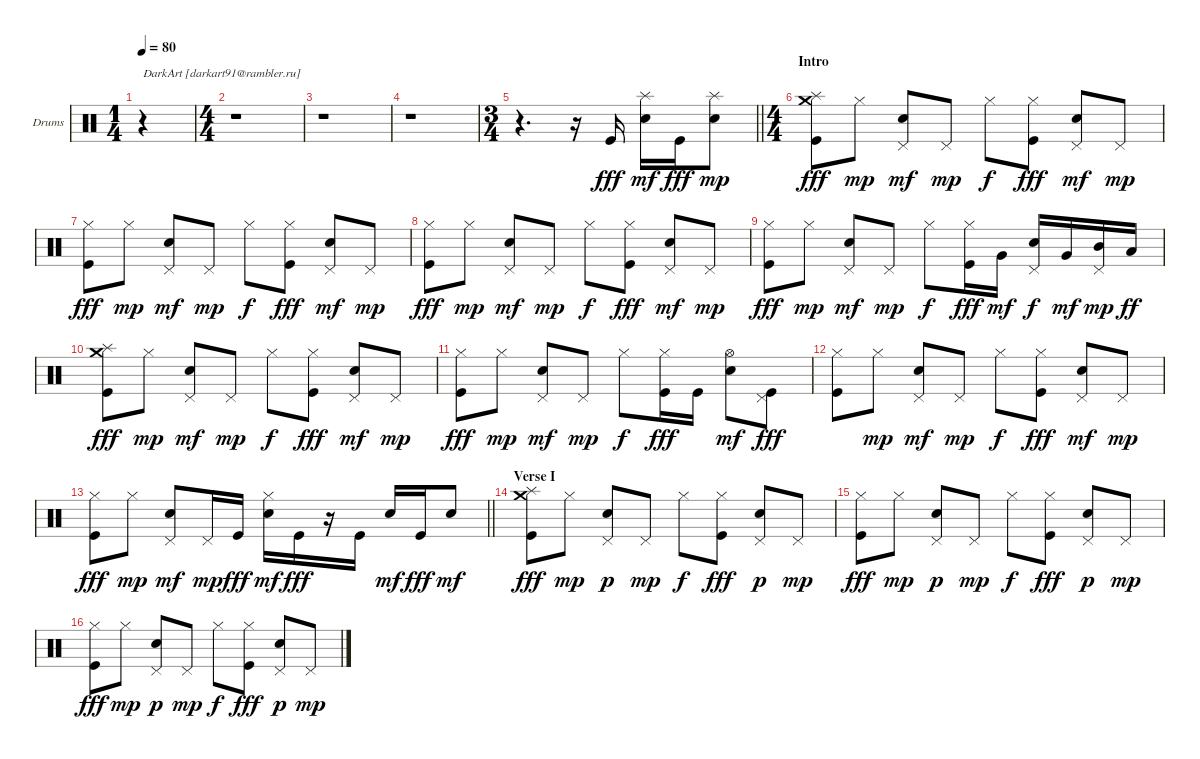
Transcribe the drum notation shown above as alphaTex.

\bracketExtendMode groupsimilarinstruments
\firstSystemTrackNameOrientation horizontal
\otherSystemsTrackNameOrientation horizontal
\track ("Drumkit" "Drums") {instrument percussion}
\staff {score}
\articulation defaults
\voice
\ts (1 4)
\beaming (8 2)
\tempo 80
\clef neutral
\ks c
r.4{txt "DarkArt [darkart91@rambler.ru]" dy fff} |
\ts (4 4)
\beaming (8 2 2 2 2)
r.1 |
r.1 |
r.1 |
\ts (3 4)
\beaming (8 2 2 2)
\barLineRight lightlight
r.4{d} r.16 "Kick (hit)".16 ("Splash (hit)" "Snare (hit) 2").16{dy mf} "Kick (hit)".16{dy fff} ("Splash (hit)" "Snare (hit) 2").8{dy mp} |
\ts (4 4)
\beaming (8 2 2 2 2)
\section ("" "Intro")
("Kick (hit)" "Crash medium (hit)" "Splash (hit)").8{dy fff} "Hi-Hat (closed)".8{dy mp} ("Pedal Hi-Hat (hit)" "Snare (hit) 2").8{dy mf} "Pedal Hi-Hat (hit)".8{dy mp} "Hi-Hat (closed)".8{dy f} ("Kick (hit)" "Hi-Hat (closed)").8{dy fff} ("Pedal Hi-Hat (hit)" "Snare (hit) 2").8{dy mf} "Pedal Hi-Hat (hit)".8{dy mp} |
("Kick (hit)" "Hi-Hat (closed)").8{dy fff} "Hi-Hat (closed)".8{dy mp} ("Pedal Hi-Hat (hit)" "Snare (hit) 2").8{dy mf} "Pedal Hi-Hat (hit)".8{dy mp} "Hi-Hat (closed)".8{dy f} ("Kick (hit)" "Hi-Hat (closed)").8{dy fff} ("Pedal Hi-Hat (hit)" "Snare (hit) 2").8{dy mf} "Pedal Hi-Hat (hit)".8{dy mp} |
("Kick (hit)" "Hi-Hat (closed)").8{dy fff} "Hi-Hat (closed)".8{dy mp} ("Pedal Hi-Hat (hit)" "Snare (hit) 2").8{dy mf} "Pedal Hi-Hat (hit)".8{dy mp} "Hi-Hat (closed)".8{dy f} ("Kick (hit)" "Hi-Hat (closed)").8{dy fff} ("Pedal Hi-Hat (hit)" "Snare (hit) 2").8{dy mf} "Pedal Hi-Hat (hit)".8{dy mp} |
("Kick (hit)" "Hi-Hat (closed)").8{dy fff} "Hi-Hat (closed)".8{dy mp} ("Pedal Hi-Hat (hit)" "Snare (hit) 2").8{dy mf} "Pedal Hi-Hat (hit)".8{dy mp} "Hi-Hat (closed)".8{dy f} ("Kick (hit)" "Hi-Hat (closed)").16{dy fff} "Very Low Tom (hit)".16{dy mf} ("Pedal Hi-Hat (hit)" "Snare (hit) 2").16{dy f} "Very Low Tom (hit)".16{dy mf} ("Pedal Hi-Hat (hit)" "Mid Tom (hit)").16{dy mp} "Low Tom (hit)".16{dy ff} |
("Kick (hit)" "Crash medium (hit)" "Splash (hit)").8{dy fff} "Hi-Hat (closed)".8{dy mp} ("Pedal Hi-Hat (hit)" "Snare (hit) 2").8{dy mf} "Pedal Hi-Hat (hit)".8{dy mp} "Hi-Hat (closed)".8{dy f} ("Kick (hit)" "Hi-Hat (closed)").8{dy fff} ("Pedal Hi-Hat (hit)" "Snare (hit) 2").8{dy mf} "Pedal Hi-Hat (hit)".8{dy mp} |
("Kick (hit)" "Hi-Hat (closed)").8{dy fff} "Hi-Hat (closed)".8{dy mp} ("Pedal Hi-Hat (hit)" "Snare (hit) 2").8{dy mf} "Pedal Hi-Hat (hit)".8{dy mp} "Hi-Hat (closed)".8{dy f} ("Kick (hit)" "Hi-Hat (closed)").16{dy fff} "Kick (hit)".16 ("Hi-Hat (open)" "Snare (hit) 2").8{dy mf} ("Kick (hit)" "Pedal Hi-Hat (hit)").8{dy fff} |
("Kick (hit)" "Hi-Hat (closed)").8 "Hi-Hat (closed)".8{dy mp} ("Pedal Hi-Hat (hit)" "Snare (hit) 2").8{dy mf} "Pedal Hi-Hat (hit)".8{dy mp} "Hi-Hat (closed)".8{dy f} ("Kick (hit)" "Hi-Hat (closed)").8{dy fff} ("Pedal Hi-Hat (hit)" "Snare (hit) 2").8{dy mf} "Pedal Hi-Hat (hit)".8{dy mp} |
\barLineRight lightlight
("Kick (hit)" "Hi-Hat (closed)").8{dy fff} "Hi-Hat (closed)".8{dy mp} ("Pedal Hi-Hat (hit)" "Snare (hit) 2").8{dy mf} "Pedal Hi-Hat (hit)".16{dy mp} "Kick (hit)".16{dy fff} ("Hi-Hat (closed)" "Snare (hit) 2").16{dy mf} "Kick (hit)".16{dy fff} r.16 "Kick (hit)".16 "Snare (hit) 2".16{dy mf} "Kick (hit)".16{dy fff} "Snare (hit) 2".8{dy mf} |
\section ("" "Verse I")
("Kick (hit)" "Crash medium (hit)" "Splash (hit)").8{dy fff} "Hi-Hat (closed)".8{dy mp} ("Pedal Hi-Hat (hit)" "Snare (hit) 2").8{dy p} "Pedal Hi-Hat (hit)".8{dy mp} "Hi-Hat (closed)".8{dy f} ("Kick (hit)" "Hi-Hat (closed)").8{dy fff} ("Pedal Hi-Hat (hit)" "Snare (hit) 2").8{dy p} "Pedal Hi-Hat (hit)".8{dy mp} |
("Kick (hit)" "Hi-Hat (closed)").8{dy fff} "Hi-Hat (closed)".8{dy mp} ("Pedal Hi-Hat (hit)" "Snare (hit) 2").8{dy p} "Pedal Hi-Hat (hit)".8{dy mp} "Hi-Hat (closed)".8{dy f} ("Kick (hit)" "Hi-Hat (closed)").8{dy fff} ("Pedal Hi-Hat (hit)" "Snare (hit) 2").8{dy p} "Pedal Hi-Hat (hit)".8{dy mp} |
("Kick (hit)" "Hi-Hat (closed)").8{dy fff} "Hi-Hat (closed)".8{dy mp} ("Pedal Hi-Hat (hit)" "Snare (hit) 2").8{dy p} "Pedal Hi-Hat (hit)".8{dy mp} "Hi-Hat (closed)".8{dy f} ("Kick (hit)" "Hi-Hat (closed)").8{dy fff} ("Pedal Hi-Hat (hit)" "Snare (hit) 2").8{dy p} "Pedal Hi-Hat (hit)".8{dy mp}
\voice
\clef neutral
\ottava regular
\simile none
\ks c
r.4{dy mf} |
|
|
|
\barLineRight lightlight
|
|
|
|
|
|
|
|
\barLineRight lightlight
|
|
|
